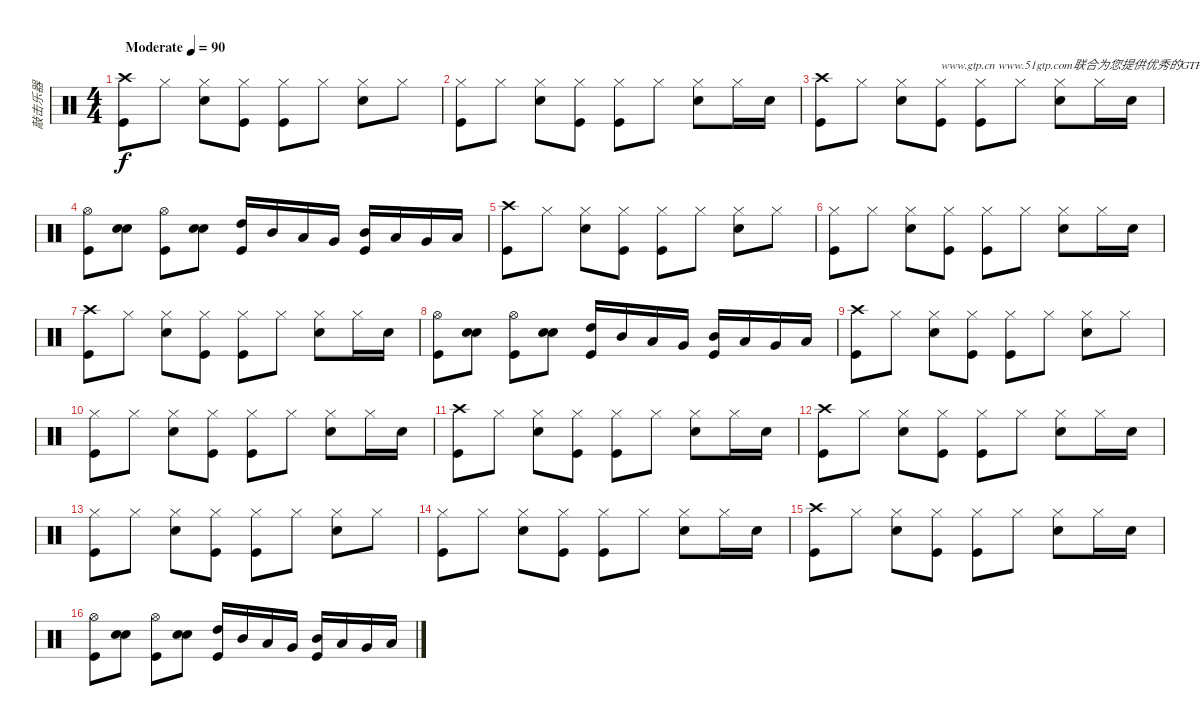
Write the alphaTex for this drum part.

\track ("敲击乐器" "敲击乐器") {instrument percussion}
\staff {score}
\articulation defaults
\ts (4 4)
\tempo (90 "Moderate")
\clef neutral
\ks c
("Kick (hit)" "Crash high (hit)").8{dy f} "Hi-Hat (closed)".8 ("Snare (hit) 2" "Hi-Hat (closed)").8 ("Kick (hit)" "Hi-Hat (closed)").8 ("Kick (hit)" "Hi-Hat (closed)").8 "Hi-Hat (closed)".8 ("Snare (hit) 2" "Hi-Hat (closed)").8 "Hi-Hat (closed)".8 |
("Kick (hit)" "Hi-Hat (closed)").8 "Hi-Hat (closed)".8 ("Snare (hit) 2" "Hi-Hat (closed)").8 ("Kick (hit)" "Hi-Hat (closed)").8 ("Kick (hit)" "Hi-Hat (closed)").8 "Hi-Hat (closed)".8 ("Snare (hit) 2" "Hi-Hat (closed)").8 "Hi-Hat (closed)".16 "Snare (hit) 2".16 |
("Kick (hit)" "Crash high (hit)").8 "Hi-Hat (closed)".8 ("Snare (hit) 2" "Hi-Hat (closed)").8 ("Kick (hit)" "Hi-Hat (closed)").8{txt "www.gtp.cn www.51gtp.com联合为您提供优秀的GTP!"} ("Kick (hit)" "Hi-Hat (closed)").8 "Hi-Hat (closed)".8 ("Snare (hit) 2" "Hi-Hat (closed)").8 "Hi-Hat (closed)".16 "Snare (hit) 2".16 |
("Hi-Hat (open)" "Kick (hit)").8 ("Snare (hit) 2" "Snare (hit) 2").8 ("Kick (hit)" "Hi-Hat (open)").8 ("Snare (hit) 2" "Snare (hit) 2").8 ("Kick (hit)" "High Tom (hit)").16 "Mid Tom (hit)".16 "Low Tom (hit)".16 "Very Low Tom (hit)".16 ("Kick (hit)" "Mid Tom (hit)").16 "Low Tom (hit)".16 "Very Low Tom (hit)".16 "Low Floor Tom (hit)".16 |
("Kick (hit)" "Crash high (hit)").8 "Hi-Hat (closed)".8 ("Snare (hit) 2" "Hi-Hat (closed)").8 ("Kick (hit)" "Hi-Hat (closed)").8 ("Kick (hit)" "Hi-Hat (closed)").8 "Hi-Hat (closed)".8 ("Snare (hit) 2" "Hi-Hat (closed)").8 "Hi-Hat (closed)".8 |
("Kick (hit)" "Hi-Hat (closed)").8 "Hi-Hat (closed)".8 ("Snare (hit) 2" "Hi-Hat (closed)").8 ("Kick (hit)" "Hi-Hat (closed)").8 ("Kick (hit)" "Hi-Hat (closed)").8 "Hi-Hat (closed)".8 ("Snare (hit) 2" "Hi-Hat (closed)").8 "Hi-Hat (closed)".16 "Snare (hit) 2".16 |
("Kick (hit)" "Crash high (hit)").8 "Hi-Hat (closed)".8 ("Snare (hit) 2" "Hi-Hat (closed)").8 ("Kick (hit)" "Hi-Hat (closed)").8 ("Kick (hit)" "Hi-Hat (closed)").8 "Hi-Hat (closed)".8 ("Snare (hit) 2" "Hi-Hat (closed)").8 "Hi-Hat (closed)".16 "Snare (hit) 2".16 |
("Hi-Hat (open)" "Kick (hit)").8 ("Snare (hit) 2" "Snare (hit) 2").8 ("Kick (hit)" "Hi-Hat (open)").8 ("Snare (hit) 2" "Snare (hit) 2").8 ("Kick (hit)" "High Tom (hit)").16 "Mid Tom (hit)".16 "Low Tom (hit)".16 "Very Low Tom (hit)".16 ("Kick (hit)" "Mid Tom (hit)").16 "Low Tom (hit)".16 "Very Low Tom (hit)".16 "Low Floor Tom (hit)".16 |
("Kick (hit)" "Crash high (hit)").8 "Hi-Hat (closed)".8 ("Snare (hit) 2" "Hi-Hat (closed)").8 ("Kick (hit)" "Hi-Hat (closed)").8 ("Kick (hit)" "Hi-Hat (closed)").8 "Hi-Hat (closed)".8 ("Snare (hit) 2" "Hi-Hat (closed)").8 "Hi-Hat (closed)".8 |
("Kick (hit)" "Hi-Hat (closed)").8 "Hi-Hat (closed)".8 ("Snare (hit) 2" "Hi-Hat (closed)").8 ("Kick (hit)" "Hi-Hat (closed)").8 ("Kick (hit)" "Hi-Hat (closed)").8 "Hi-Hat (closed)".8 ("Snare (hit) 2" "Hi-Hat (closed)").8 "Hi-Hat (closed)".16 "Snare (hit) 2".16 |
("Kick (hit)" "Crash high (hit)").8 "Hi-Hat (closed)".8 ("Snare (hit) 2" "Hi-Hat (closed)").8 ("Kick (hit)" "Hi-Hat (closed)").8 ("Kick (hit)" "Hi-Hat (closed)").8 "Hi-Hat (closed)".8 ("Snare (hit) 2" "Hi-Hat (closed)").8 "Hi-Hat (closed)".16 "Snare (hit) 2".16 |
("Kick (hit)" "Crash high (hit)").8 "Hi-Hat (closed)".8 ("Snare (hit) 2" "Hi-Hat (closed)").8 ("Kick (hit)" "Hi-Hat (closed)").8 ("Kick (hit)" "Hi-Hat (closed)").8 "Hi-Hat (closed)".8 ("Snare (hit) 2" "Hi-Hat (closed)").8 "Hi-Hat (closed)".16 "Snare (hit) 2".16 |
("Kick (hit)" "Hi-Hat (closed)").8 "Hi-Hat (closed)".8 ("Snare (hit) 2" "Hi-Hat (closed)").8 ("Kick (hit)" "Hi-Hat (closed)").8 ("Kick (hit)" "Hi-Hat (closed)").8 "Hi-Hat (closed)".8 ("Snare (hit) 2" "Hi-Hat (closed)").8 "Hi-Hat (closed)".8 |
("Kick (hit)" "Hi-Hat (closed)").8 "Hi-Hat (closed)".8 ("Snare (hit) 2" "Hi-Hat (closed)").8 ("Kick (hit)" "Hi-Hat (closed)").8 ("Kick (hit)" "Hi-Hat (closed)").8 "Hi-Hat (closed)".8 ("Snare (hit) 2" "Hi-Hat (closed)").8 "Hi-Hat (closed)".16 "Snare (hit) 2".16 |
("Kick (hit)" "Crash high (hit)").8 "Hi-Hat (closed)".8 ("Snare (hit) 2" "Hi-Hat (closed)").8 ("Kick (hit)" "Hi-Hat (closed)").8 ("Kick (hit)" "Hi-Hat (closed)").8 "Hi-Hat (closed)".8 ("Snare (hit) 2" "Hi-Hat (closed)").8 "Hi-Hat (closed)".16 "Snare (hit) 2".16 |
("Hi-Hat (open)" "Kick (hit)").8 ("Snare (hit) 2" "Snare (hit) 2").8 ("Kick (hit)" "Hi-Hat (open)").8 ("Snare (hit) 2" "Snare (hit) 2").8 ("Kick (hit)" "High Tom (hit)").16 "Mid Tom (hit)".16 "Low Tom (hit)".16 "Very Low Tom (hit)".16 ("Kick (hit)" "Mid Tom (hit)").16 "Low Tom (hit)".16 "Very Low Tom (hit)".16 "Low Floor Tom (hit)".16
